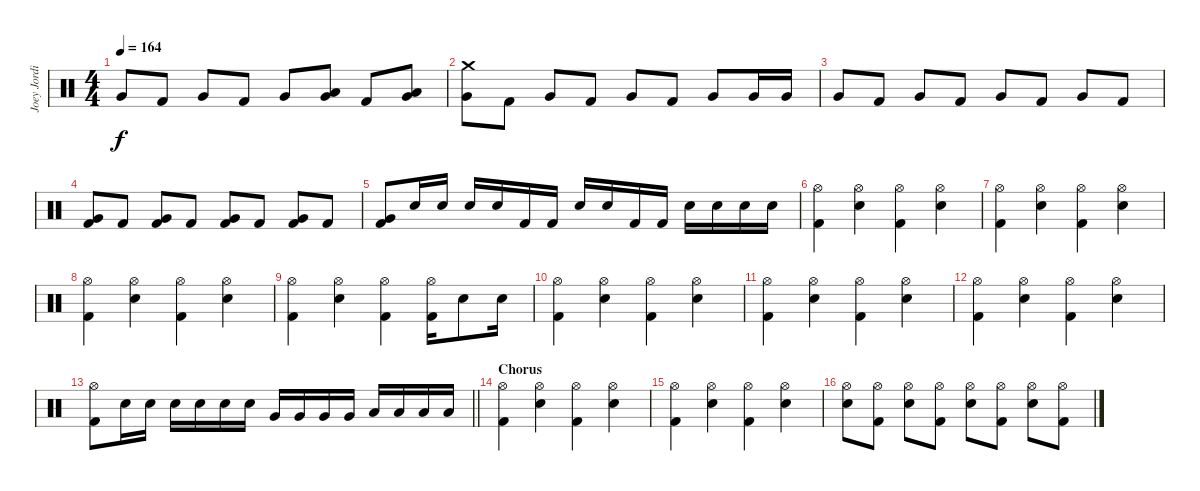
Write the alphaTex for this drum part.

\track ("Joey Jordison III" "Joey Jordi") {instrument percussion}
\staff {score}
\articulation defaults
\ts (4 4)
\tempo 164
\clef neutral
\ks c "Very Low Tom (hit)".8{dy f} "Kick (hit) 2".8 "Very Low Tom (hit)".8 "Kick (hit) 2".8 "Very Low Tom (hit)".8
("Very Low Tom (hit)" "Low Floor Tom (hit)").8 "Kick (hit) 2".8 ("Very Low Tom (hit)" "Low Floor Tom (hit)").8 |
("Crash medium (hit)" "Very Low Tom (hit)").8 "Kick (hit) 2".8 "Very Low Tom (hit)".8 "Kick (hit) 2".8 "Very Low Tom (hit)".8 "Kick (hit) 2".8 "Very Low Tom (hit)".8 "Very Low Tom (hit)".16 "Very Low Tom (hit)".16 |
"Very Low Tom (hit)".8 "Kick (hit) 2".8 "Very Low Tom (hit)".8 "Kick (hit) 2".8 "Very Low Tom (hit)".8 "Kick (hit) 2".8 "Very Low Tom (hit)".8 "Kick (hit) 2".8 |
("Very Low Tom (hit)" "Kick (hit) 2").8 "Kick (hit) 2".8 ("Very Low Tom (hit)" "Kick (hit) 2").8 "Kick (hit) 2".8 ("Very Low Tom (hit)" "Kick (hit) 2").8 "Kick (hit) 2".8 ("Very Low Tom (hit)" "Kick (hit) 2").8 "Kick (hit) 2".8 |
("Very Low Tom (hit)" "Kick (hit) 2").8 "Electric Snare (hit)".16 "Electric Snare (hit)".16 "Electric Snare (hit)".16 "Electric Snare (hit)".16 "Kick (hit) 2".16 "Kick (hit) 2".16 "Electric Snare (hit)".16 "Electric Snare (hit)".16 "Kick (hit) 2".16 "Kick (hit) 2".16 "Electric Snare (hit)".16 "Electric Snare (hit)".16 "Electric Snare (hit)".16 "Electric Snare (hit)".16 |
("Hi-Hat (open)" "Kick (hit) 2").4 ("Hi-Hat (open)" "Electric Snare (hit)").4 ("Hi-Hat (open)" "Kick (hit) 2").4 ("Hi-Hat (open)" "Electric Snare (hit)").4 |
("Hi-Hat (open)" "Kick (hit) 2").4 ("Hi-Hat (open)" "Electric Snare (hit)").4 ("Hi-Hat (open)" "Kick (hit) 2").4 ("Hi-Hat (open)" "Electric Snare (hit)").4 |
("Hi-Hat (open)" "Kick (hit) 2").4 ("Hi-Hat (open)" "Electric Snare (hit)").4 ("Hi-Hat (open)" "Kick (hit) 2").4 ("Hi-Hat (open)" "Electric Snare (hit)").4 |
("Hi-Hat (open)" "Kick (hit) 2").4 ("Hi-Hat (open)" "Electric Snare (hit)").4 ("Hi-Hat (open)" "Kick (hit) 2").4 ("Hi-Hat (open)" "Kick (hit) 2").16 "Electric Snare (hit)".8 "Electric Snare (hit)".16 |
("Hi-Hat (open)" "Kick (hit) 2").4 ("Hi-Hat (open)" "Electric Snare (hit)").4 ("Hi-Hat (open)" "Kick (hit) 2").4 ("Hi-Hat (open)" "Electric Snare (hit)").4 |
("Hi-Hat (open)" "Kick (hit) 2").4 ("Hi-Hat (open)" "Electric Snare (hit)").4 ("Hi-Hat (open)" "Kick (hit) 2").4 ("Hi-Hat (open)" "Electric Snare (hit)").4 |
("Hi-Hat (open)" "Kick (hit) 2").4 ("Hi-Hat (open)" "Electric Snare (hit)").4 ("Hi-Hat (open)" "Kick (hit) 2").4 ("Hi-Hat (open)" "Electric Snare (hit)").4 |
\barLineRight lightlight
("Hi-Hat (open)" "Kick (hit) 2").8 "Electric Snare (hit)".16 "Electric Snare (hit)".16 "Electric Snare (hit)".16 "Electric Snare (hit)".16 "Electric Snare (hit)".16 "Electric Snare (hit)".16 "Very Low Tom (hit)".16 "Very Low Tom (hit)".16 "Very Low Tom (hit)".16 "Very Low Tom (hit)".16 "Low Floor Tom (hit)".16 "Low Floor Tom (hit)".16 "Low Floor Tom (hit)".16 "Low Floor Tom (hit)".16 |
\section ("" "Chorus")
("Hi-Hat (open)" "Kick (hit) 2").4 ("Hi-Hat (open)" "Electric Snare (hit)").4 ("Hi-Hat (open)" "Kick (hit) 2").4 ("Hi-Hat (open)" "Electric Snare (hit)").4 |
("Hi-Hat (open)" "Kick (hit) 2").4 ("Hi-Hat (open)" "Electric Snare (hit)").4 ("Hi-Hat (open)" "Kick (hit) 2").4 ("Hi-Hat (open)" "Electric Snare (hit)").4 |
("Hi-Hat (open)" "Electric Snare (hit)").8 ("Hi-Hat (open)" "Kick (hit) 2").8 ("Hi-Hat (open)" "Electric Snare (hit)").8 ("Hi-Hat (open)" "Kick (hit) 2").8 ("Hi-Hat (open)" "Electric Snare (hit)").8 ("Hi-Hat (open)" "Kick (hit) 2").8 ("Hi-Hat (open)" "Electric Snare (hit)").8 ("Hi-Hat (open)" "Kick (hit) 2").8
